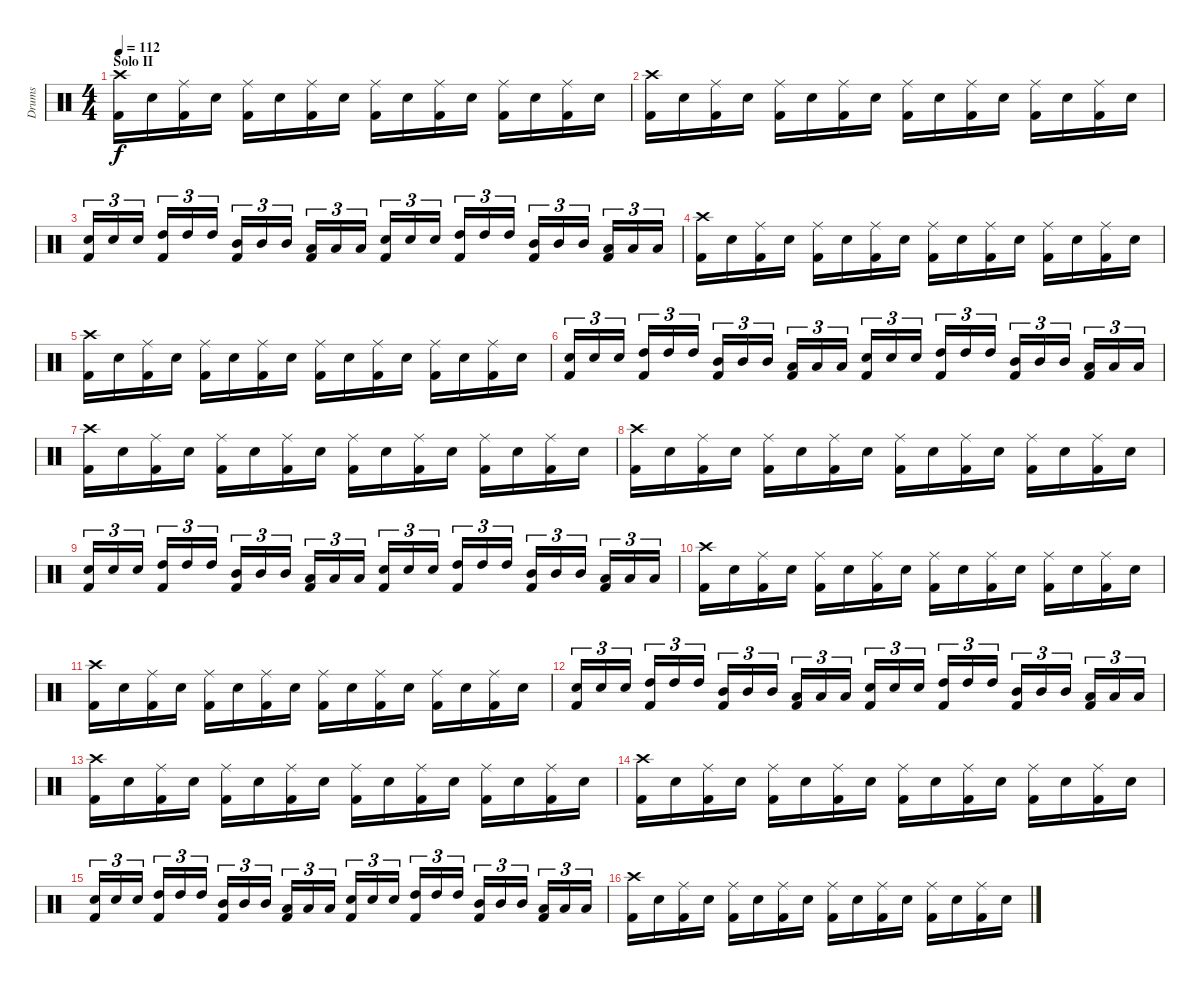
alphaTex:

\track ("Drums" "Drums") {instrument percussion}
\staff {score}
\articulation defaults
\ts (4 4)
\section ("" "Solo II")
\tempo 112
\clef neutral
\ks c
("Crash high (hit)" "Kick (hit) 2").16{dy f} "Electric Snare (hit)".16 ("Ride (middle)" "Kick (hit) 2").16 "Electric Snare (hit)".16 ("Ride (middle)" "Kick (hit) 2").16 "Electric Snare (hit)".16 ("Ride (middle)" "Kick (hit) 2").16 "Electric Snare (hit)".16 ("Ride (middle)" "Kick (hit) 2").16 "Electric Snare (hit)".16 ("Ride (middle)" "Kick (hit) 2").16 "Electric Snare (hit)".16 ("Ride (middle)" "Kick (hit) 2").16 "Electric Snare (hit)".16 ("Ride (middle)" "Kick (hit) 2").16 "Electric Snare (hit)".16 |
("Crash high (hit)" "Kick (hit) 2").16 "Electric Snare (hit)".16 ("Ride (middle)" "Kick (hit) 2").16 "Electric Snare (hit)".16 ("Ride (middle)" "Kick (hit) 2").16 "Electric Snare (hit)".16 ("Ride (middle)" "Kick (hit) 2").16 "Electric Snare (hit)".16 ("Ride (middle)" "Kick (hit) 2").16 "Electric Snare (hit)".16 ("Ride (middle)" "Kick (hit) 2").16 "Electric Snare (hit)".16 ("Ride (middle)" "Kick (hit) 2").16 "Electric Snare (hit)".16 ("Ride (middle)" "Kick (hit) 2").16 "Electric Snare (hit)".16 |
("Electric Snare (hit)" "Kick (hit) 2").16{tu (3 2)} "Electric Snare (hit)".16{tu (3 2)} "Electric Snare (hit)".16{tu (3 2) beam splitsecondary} ("High Tom (hit)" "Kick (hit) 2").16{tu (3 2)} "High Tom (hit)".16{tu (3 2)} "High Tom (hit)".16{tu (3 2)} ("Mid Tom (hit)" "Kick (hit) 2").16{tu (3 2)} "Mid Tom (hit)".16{tu (3 2)} "Mid Tom (hit)".16{tu (3 2) beam splitsecondary} ("Low Tom (hit)" "Kick (hit) 2").16{tu (3 2)} "Low Tom (hit)".16{tu (3 2)} "Low Tom (hit)".16{tu (3 2)} ("Electric Snare (hit)" "Kick (hit) 2").16{tu (3 2)} "Electric Snare (hit)".16{tu (3 2)} "Electric Snare (hit)".16{tu (3 2) beam splitsecondary} ("High Tom (hit)" "Kick (hit) 2").16{tu (3 2)} "High Tom (hit)".16{tu (3 2)} "High Tom (hit)".16{tu (3 2)} ("Mid Tom (hit)" "Kick (hit) 2").16{tu (3 2)} "Mid Tom (hit)".16{tu (3 2)} "Mid Tom (hit)".16{tu (3 2) beam splitsecondary} ("Low Tom (hit)" "Kick (hit) 2").16{tu (3 2)} "Low Tom (hit)".16{tu (3 2)} "Low Tom (hit)".16{tu (3 2)} |
("Crash high (hit)" "Kick (hit) 2").16 "Electric Snare (hit)".16 ("Ride (middle)" "Kick (hit) 2").16 "Electric Snare (hit)".16 ("Ride (middle)" "Kick (hit) 2").16 "Electric Snare (hit)".16 ("Ride (middle)" "Kick (hit) 2").16 "Electric Snare (hit)".16 ("Ride (middle)" "Kick (hit) 2").16 "Electric Snare (hit)".16 ("Ride (middle)" "Kick (hit) 2").16 "Electric Snare (hit)".16 ("Ride (middle)" "Kick (hit) 2").16 "Electric Snare (hit)".16 ("Ride (middle)" "Kick (hit) 2").16 "Electric Snare (hit)".16 |
("Crash high (hit)" "Kick (hit) 2").16 "Electric Snare (hit)".16 ("Ride (middle)" "Kick (hit) 2").16 "Electric Snare (hit)".16 ("Ride (middle)" "Kick (hit) 2").16 "Electric Snare (hit)".16 ("Ride (middle)" "Kick (hit) 2").16 "Electric Snare (hit)".16 ("Ride (middle)" "Kick (hit) 2").16 "Electric Snare (hit)".16 ("Ride (middle)" "Kick (hit) 2").16 "Electric Snare (hit)".16 ("Ride (middle)" "Kick (hit) 2").16 "Electric Snare (hit)".16 ("Ride (middle)" "Kick (hit) 2").16 "Electric Snare (hit)".16 |
("Electric Snare (hit)" "Kick (hit) 2").16{tu (3 2)} "Electric Snare (hit)".16{tu (3 2)} "Electric Snare (hit)".16{tu (3 2) beam splitsecondary} ("High Tom (hit)" "Kick (hit) 2").16{tu (3 2)} "High Tom (hit)".16{tu (3 2)} "High Tom (hit)".16{tu (3 2)} ("Mid Tom (hit)" "Kick (hit) 2").16{tu (3 2)} "Mid Tom (hit)".16{tu (3 2)} "Mid Tom (hit)".16{tu (3 2) beam splitsecondary} ("Low Tom (hit)" "Kick (hit) 2").16{tu (3 2)} "Low Tom (hit)".16{tu (3 2)} "Low Tom (hit)".16{tu (3 2)} ("Electric Snare (hit)" "Kick (hit) 2").16{tu (3 2)} "Electric Snare (hit)".16{tu (3 2)} "Electric Snare (hit)".16{tu (3 2) beam splitsecondary} ("High Tom (hit)" "Kick (hit) 2").16{tu (3 2)} "High Tom (hit)".16{tu (3 2)} "High Tom (hit)".16{tu (3 2)} ("Mid Tom (hit)" "Kick (hit) 2").16{tu (3 2)} "Mid Tom (hit)".16{tu (3 2)} "Mid Tom (hit)".16{tu (3 2) beam splitsecondary} ("Low Tom (hit)" "Kick (hit) 2").16{tu (3 2)} "Low Tom (hit)".16{tu (3 2)} "Low Tom (hit)".16{tu (3 2)} |
("Crash high (hit)" "Kick (hit) 2").16 "Electric Snare (hit)".16 ("Ride (middle)" "Kick (hit) 2").16 "Electric Snare (hit)".16 ("Ride (middle)" "Kick (hit) 2").16 "Electric Snare (hit)".16 ("Ride (middle)" "Kick (hit) 2").16 "Electric Snare (hit)".16 ("Ride (middle)" "Kick (hit) 2").16 "Electric Snare (hit)".16 ("Ride (middle)" "Kick (hit) 2").16 "Electric Snare (hit)".16 ("Ride (middle)" "Kick (hit) 2").16 "Electric Snare (hit)".16 ("Ride (middle)" "Kick (hit) 2").16 "Electric Snare (hit)".16 |
("Crash high (hit)" "Kick (hit) 2").16 "Electric Snare (hit)".16 ("Ride (middle)" "Kick (hit) 2").16 "Electric Snare (hit)".16 ("Ride (middle)" "Kick (hit) 2").16 "Electric Snare (hit)".16 ("Ride (middle)" "Kick (hit) 2").16 "Electric Snare (hit)".16 ("Ride (middle)" "Kick (hit) 2").16 "Electric Snare (hit)".16 ("Ride (middle)" "Kick (hit) 2").16 "Electric Snare (hit)".16 ("Ride (middle)" "Kick (hit) 2").16 "Electric Snare (hit)".16 ("Ride (middle)" "Kick (hit) 2").16 "Electric Snare (hit)".16 |
("Electric Snare (hit)" "Kick (hit) 2").16{tu (3 2)} "Electric Snare (hit)".16{tu (3 2)} "Electric Snare (hit)".16{tu (3 2) beam splitsecondary} ("High Tom (hit)" "Kick (hit) 2").16{tu (3 2)} "High Tom (hit)".16{tu (3 2)} "High Tom (hit)".16{tu (3 2)} ("Mid Tom (hit)" "Kick (hit) 2").16{tu (3 2)} "Mid Tom (hit)".16{tu (3 2)} "Mid Tom (hit)".16{tu (3 2) beam splitsecondary} ("Low Tom (hit)" "Kick (hit) 2").16{tu (3 2)} "Low Tom (hit)".16{tu (3 2)} "Low Tom (hit)".16{tu (3 2)} ("Electric Snare (hit)" "Kick (hit) 2").16{tu (3 2)} "Electric Snare (hit)".16{tu (3 2)} "Electric Snare (hit)".16{tu (3 2) beam splitsecondary} ("High Tom (hit)" "Kick (hit) 2").16{tu (3 2)} "High Tom (hit)".16{tu (3 2)} "High Tom (hit)".16{tu (3 2)} ("Mid Tom (hit)" "Kick (hit) 2").16{tu (3 2)} "Mid Tom (hit)".16{tu (3 2)} "Mid Tom (hit)".16{tu (3 2) beam splitsecondary} ("Low Tom (hit)" "Kick (hit) 2").16{tu (3 2)} "Low Tom (hit)".16{tu (3 2)} "Low Tom (hit)".16{tu (3 2)} |
("Crash high (hit)" "Kick (hit) 2").16 "Electric Snare (hit)".16 ("Ride (middle)" "Kick (hit) 2").16 "Electric Snare (hit)".16 ("Ride (middle)" "Kick (hit) 2").16 "Electric Snare (hit)".16 ("Ride (middle)" "Kick (hit) 2").16 "Electric Snare (hit)".16 ("Ride (middle)" "Kick (hit) 2").16 "Electric Snare (hit)".16 ("Ride (middle)" "Kick (hit) 2").16 "Electric Snare (hit)".16 ("Ride (middle)" "Kick (hit) 2").16 "Electric Snare (hit)".16 ("Ride (middle)" "Kick (hit) 2").16 "Electric Snare (hit)".16 |
("Crash high (hit)" "Kick (hit) 2").16 "Electric Snare (hit)".16 ("Ride (middle)" "Kick (hit) 2").16 "Electric Snare (hit)".16 ("Ride (middle)" "Kick (hit) 2").16 "Electric Snare (hit)".16 ("Ride (middle)" "Kick (hit) 2").16 "Electric Snare (hit)".16 ("Ride (middle)" "Kick (hit) 2").16 "Electric Snare (hit)".16 ("Ride (middle)" "Kick (hit) 2").16 "Electric Snare (hit)".16 ("Ride (middle)" "Kick (hit) 2").16 "Electric Snare (hit)".16 ("Ride (middle)" "Kick (hit) 2").16 "Electric Snare (hit)".16 |
("Electric Snare (hit)" "Kick (hit) 2").16{tu (3 2)} "Electric Snare (hit)".16{tu (3 2)} "Electric Snare (hit)".16{tu (3 2) beam splitsecondary} ("High Tom (hit)" "Kick (hit) 2").16{tu (3 2)} "High Tom (hit)".16{tu (3 2)} "High Tom (hit)".16{tu (3 2)} ("Mid Tom (hit)" "Kick (hit) 2").16{tu (3 2)} "Mid Tom (hit)".16{tu (3 2)} "Mid Tom (hit)".16{tu (3 2) beam splitsecondary} ("Low Tom (hit)" "Kick (hit) 2").16{tu (3 2)} "Low Tom (hit)".16{tu (3 2)} "Low Tom (hit)".16{tu (3 2)} ("Electric Snare (hit)" "Kick (hit) 2").16{tu (3 2)} "Electric Snare (hit)".16{tu (3 2)} "Electric Snare (hit)".16{tu (3 2) beam splitsecondary} ("High Tom (hit)" "Kick (hit) 2").16{tu (3 2)} "High Tom (hit)".16{tu (3 2)} "High Tom (hit)".16{tu (3 2)} ("Mid Tom (hit)" "Kick (hit) 2").16{tu (3 2)} "Mid Tom (hit)".16{tu (3 2)} "Mid Tom (hit)".16{tu (3 2) beam splitsecondary} ("Low Tom (hit)" "Kick (hit) 2").16{tu (3 2)} "Low Tom (hit)".16{tu (3 2)} "Low Tom (hit)".16{tu (3 2)} |
("Crash high (hit)" "Kick (hit) 2").16 "Electric Snare (hit)".16 ("Ride (middle)" "Kick (hit) 2").16 "Electric Snare (hit)".16 ("Ride (middle)" "Kick (hit) 2").16 "Electric Snare (hit)".16 ("Ride (middle)" "Kick (hit) 2").16 "Electric Snare (hit)".16 ("Ride (middle)" "Kick (hit) 2").16 "Electric Snare (hit)".16 ("Ride (middle)" "Kick (hit) 2").16 "Electric Snare (hit)".16 ("Ride (middle)" "Kick (hit) 2").16 "Electric Snare (hit)".16 ("Ride (middle)" "Kick (hit) 2").16 "Electric Snare (hit)".16 |
("Crash high (hit)" "Kick (hit) 2").16 "Electric Snare (hit)".16 ("Ride (middle)" "Kick (hit) 2").16 "Electric Snare (hit)".16 ("Ride (middle)" "Kick (hit) 2").16 "Electric Snare (hit)".16 ("Ride (middle)" "Kick (hit) 2").16 "Electric Snare (hit)".16 ("Ride (middle)" "Kick (hit) 2").16 "Electric Snare (hit)".16 ("Ride (middle)" "Kick (hit) 2").16 "Electric Snare (hit)".16 ("Ride (middle)" "Kick (hit) 2").16 "Electric Snare (hit)".16 ("Ride (middle)" "Kick (hit) 2").16 "Electric Snare (hit)".16 |
("Electric Snare (hit)" "Kick (hit) 2").16{tu (3 2)} "Electric Snare (hit)".16{tu (3 2)} "Electric Snare (hit)".16{tu (3 2) beam splitsecondary} ("High Tom (hit)" "Kick (hit) 2").16{tu (3 2)} "High Tom (hit)".16{tu (3 2)} "High Tom (hit)".16{tu (3 2)} ("Mid Tom (hit)" "Kick (hit) 2").16{tu (3 2)} "Mid Tom (hit)".16{tu (3 2)} "Mid Tom (hit)".16{tu (3 2) beam splitsecondary} ("Low Tom (hit)" "Kick (hit) 2").16{tu (3 2)} "Low Tom (hit)".16{tu (3 2)} "Low Tom (hit)".16{tu (3 2)} ("Electric Snare (hit)" "Kick (hit) 2").16{tu (3 2)} "Electric Snare (hit)".16{tu (3 2)} "Electric Snare (hit)".16{tu (3 2) beam splitsecondary} ("High Tom (hit)" "Kick (hit) 2").16{tu (3 2)} "High Tom (hit)".16{tu (3 2)} "High Tom (hit)".16{tu (3 2)} ("Mid Tom (hit)" "Kick (hit) 2").16{tu (3 2)} "Mid Tom (hit)".16{tu (3 2)} "Mid Tom (hit)".16{tu (3 2) beam splitsecondary} ("Low Tom (hit)" "Kick (hit) 2").16{tu (3 2)} "Low Tom (hit)".16{tu (3 2)} "Low Tom (hit)".16{tu (3 2)} |
("Crash high (hit)" "Kick (hit) 2").16 "Electric Snare (hit)".16 ("Ride (middle)" "Kick (hit) 2").16 "Electric Snare (hit)".16 ("Ride (middle)" "Kick (hit) 2").16 "Electric Snare (hit)".16 ("Ride (middle)" "Kick (hit) 2").16 "Electric Snare (hit)".16 ("Ride (middle)" "Kick (hit) 2").16 "Electric Snare (hit)".16 ("Ride (middle)" "Kick (hit) 2").16 "Electric Snare (hit)".16 ("Ride (middle)" "Kick (hit) 2").16 "Electric Snare (hit)".16 ("Ride (middle)" "Kick (hit) 2").16 "Electric Snare (hit)".16
